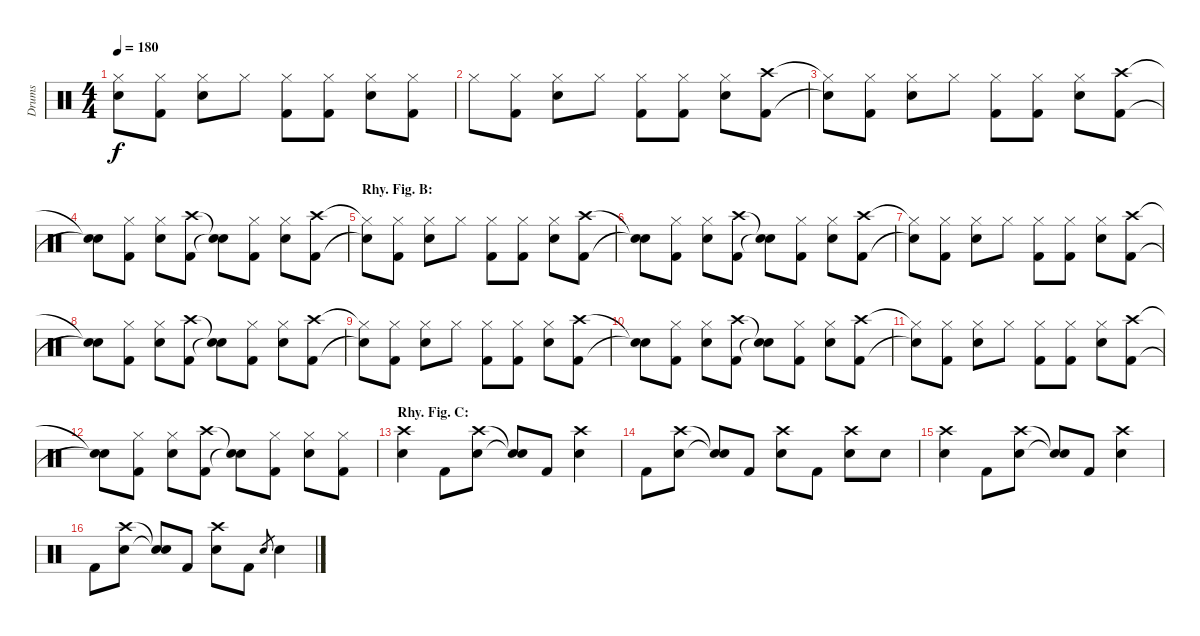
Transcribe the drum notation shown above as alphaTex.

\track ("Drums" "Drums") {instrument percussion}
\staff {score}
\articulation defaults
\ts (4 4)
\tempo 180
\clef neutral
\ks c
("Hi-Hat (closed)"{t} "Snare (hit)"{t}).8{dy f} ("Hi-Hat (closed)" "Kick (hit) 2").8 ("Hi-Hat (closed)" "Snare (hit) 2").8 "Hi-Hat (closed)".8 ("Hi-Hat (closed)" "Kick (hit) 2").8 ("Hi-Hat (closed)" "Kick (hit) 2").8 ("Hi-Hat (closed)" "Snare (hit) 2").8 ("Hi-Hat (closed)" "Kick (hit) 2").8 |
"Hi-Hat (closed)".8 ("Hi-Hat (closed)" "Kick (hit) 2").8 ("Hi-Hat (closed)" "Snare (hit) 2").8 "Hi-Hat (closed)".8 ("Hi-Hat (closed)" "Kick (hit) 2").8 ("Hi-Hat (closed)" "Kick (hit) 2").8 ("Hi-Hat (closed)" "Snare (hit) 2").8 ("Crash high (hit)" "Kick (hit) 2").8 |
("Hi-Hat (closed)"{t} "Snare (hit)"{t}).8 ("Hi-Hat (closed)" "Kick (hit) 2").8 ("Hi-Hat (closed)" "Snare (hit) 2").8 "Hi-Hat (closed)".8 ("Hi-Hat (closed)" "Kick (hit) 2").8 ("Hi-Hat (closed)" "Kick (hit) 2").8 ("Hi-Hat (closed)" "Snare (hit) 2").8 ("Crash high (hit)" "Kick (hit) 2").8 |
("Snare (hit)"{t} "Snare (hit)"{t}).8 ("Hi-Hat (closed)" "Kick (hit) 2").8 ("Hi-Hat (closed)" "Snare (hit) 2").8 ("Crash high (hit)" "Kick (hit) 2").8 ("Snare (hit)"{t} "Snare (hit)"{t}).8 ("Hi-Hat (closed)" "Kick (hit) 2").8 ("Hi-Hat (closed)" "Snare (hit) 2").8 ("Crash high (hit)" "Kick (hit) 2").8 |
\section ("" "Rhy. Fig. B:")
("Hi-Hat (closed)"{t} "Snare (hit)"{t}).8 ("Hi-Hat (closed)" "Kick (hit) 2").8 ("Hi-Hat (closed)" "Snare (hit) 2").8 "Hi-Hat (closed)".8 ("Hi-Hat (closed)" "Kick (hit) 2").8 ("Hi-Hat (closed)" "Kick (hit) 2").8 ("Hi-Hat (closed)" "Snare (hit) 2").8 ("Crash high (hit)" "Kick (hit) 2").8 |
("Snare (hit)"{t} "Snare (hit)"{t}).8 ("Hi-Hat (closed)" "Kick (hit) 2").8 ("Hi-Hat (closed)" "Snare (hit) 2").8 ("Crash high (hit)" "Kick (hit) 2").8 ("Snare (hit)"{t} "Snare (hit)"{t}).8 ("Hi-Hat (closed)" "Kick (hit) 2").8 ("Hi-Hat (closed)" "Snare (hit) 2").8 ("Crash high (hit)" "Kick (hit) 2").8 |
("Hi-Hat (closed)"{t} "Snare (hit)"{t}).8 ("Hi-Hat (closed)" "Kick (hit) 2").8 ("Hi-Hat (closed)" "Snare (hit) 2").8 "Hi-Hat (closed)".8 ("Hi-Hat (closed)" "Kick (hit) 2").8 ("Hi-Hat (closed)" "Kick (hit) 2").8 ("Hi-Hat (closed)" "Snare (hit) 2").8 ("Crash high (hit)" "Kick (hit) 2").8 |
("Snare (hit)"{t} "Snare (hit)"{t}).8 ("Hi-Hat (closed)" "Kick (hit) 2").8 ("Hi-Hat (closed)" "Snare (hit) 2").8 ("Crash high (hit)" "Kick (hit) 2").8 ("Snare (hit)"{t} "Snare (hit)"{t}).8 ("Hi-Hat (closed)" "Kick (hit) 2").8 ("Hi-Hat (closed)" "Snare (hit) 2").8 ("Crash high (hit)" "Kick (hit) 2").8 |
("Hi-Hat (closed)"{t} "Snare (hit)"{t}).8 ("Hi-Hat (closed)" "Kick (hit) 2").8 ("Hi-Hat (closed)" "Snare (hit) 2").8 "Hi-Hat (closed)".8 ("Hi-Hat (closed)" "Kick (hit) 2").8 ("Hi-Hat (closed)" "Kick (hit) 2").8 ("Hi-Hat (closed)" "Snare (hit) 2").8 ("Crash high (hit)" "Kick (hit) 2").8 |
("Snare (hit)"{t} "Snare (hit)"{t}).8 ("Hi-Hat (closed)" "Kick (hit) 2").8 ("Hi-Hat (closed)" "Snare (hit) 2").8 ("Crash high (hit)" "Kick (hit) 2").8 ("Snare (hit)"{t} "Snare (hit)"{t}).8 ("Hi-Hat (closed)" "Kick (hit) 2").8 ("Hi-Hat (closed)" "Snare (hit) 2").8 ("Crash high (hit)" "Kick (hit) 2").8 |
("Hi-Hat (closed)"{t} "Snare (hit)"{t}).8 ("Hi-Hat (closed)" "Kick (hit) 2").8 ("Hi-Hat (closed)" "Snare (hit) 2").8 "Hi-Hat (closed)".8 ("Hi-Hat (closed)" "Kick (hit) 2").8 ("Hi-Hat (closed)" "Kick (hit) 2").8 ("Hi-Hat (closed)" "Snare (hit) 2").8 ("Crash high (hit)" "Kick (hit) 2").8 |
("Snare (hit)"{t} "Snare (hit)"{t}).8 ("Hi-Hat (closed)" "Kick (hit) 2").8 ("Hi-Hat (closed)" "Snare (hit) 2").8 ("Crash high (hit)" "Kick (hit) 2").8 ("Snare (hit)"{t} "Snare (hit)"{t}).8 ("Hi-Hat (closed)" "Kick (hit) 2").8 ("Hi-Hat (closed)" "Snare (hit) 2").8 ("Hi-Hat (closed)" "Kick (hit) 2").8 |
\section ("" "Rhy. Fig. C:")
("Crash high (hit)" "Snare (hit) 2").4 "Kick (hit) 2".8 ("Crash high (hit)" "Snare (hit) 2").8 ("Snare (hit)"{t} "Snare (hit)"{t}).8 "Kick (hit) 2".8 ("Crash high (hit)" "Snare (hit) 2").4 |
"Kick (hit) 2".8 ("Crash high (hit)" "Snare (hit) 2").8 ("Snare (hit)"{t} "Snare (hit)"{t}).8 "Kick (hit) 2".8 ("Crash high (hit)" "Snare (hit) 2").8 "Kick (hit) 2".8 ("Crash high (hit)" "Snare (hit) 2").8 "Snare (hit) 2".8 |
("Crash high (hit)" "Snare (hit) 2").4 "Kick (hit) 2".8 ("Crash high (hit)" "Snare (hit) 2").8 ("Snare (hit)"{t} "Snare (hit)"{t}).8 "Kick (hit) 2".8 ("Crash high (hit)" "Snare (hit) 2").4 |
"Kick (hit) 2".8 ("Crash high (hit)" "Snare (hit) 2").8 ("Snare (hit)"{t} "Snare (hit)"{t}).8 "Kick (hit) 2".8 ("Crash high (hit)" "Snare (hit) 2").8 "Kick (hit) 2".8 "Snare (hit) 2".8{gr} "Snare (hit) 2".4
